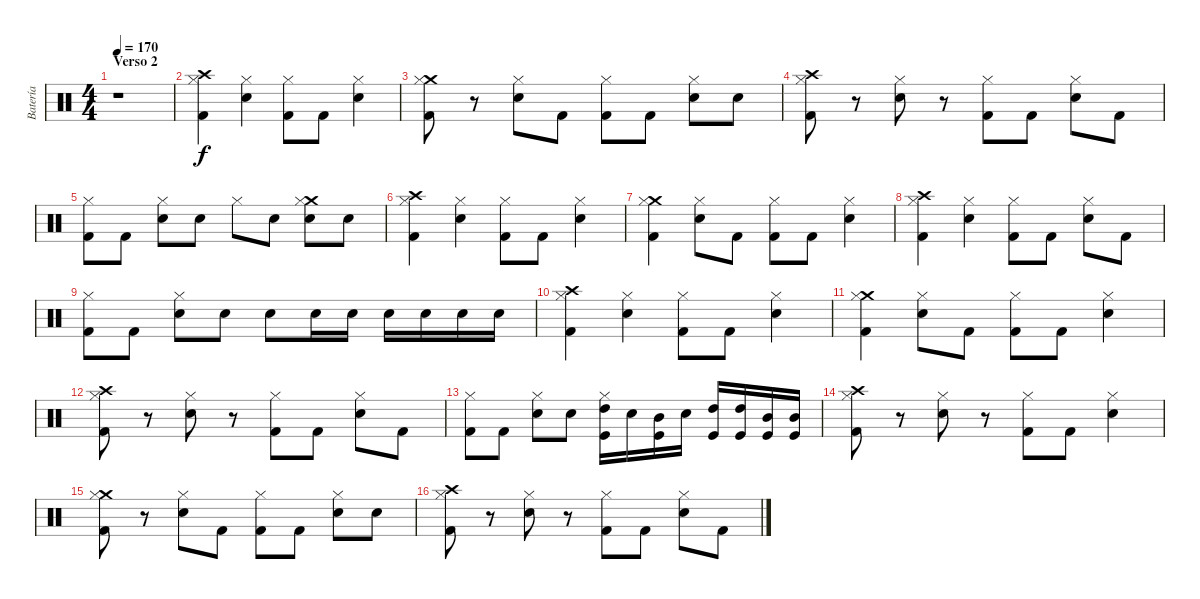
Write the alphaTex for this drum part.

\track ("Batería" "Batería") {instrument percussion}
\staff {score}
\articulation defaults
\ts (4 4)
\section ("" "Verso 2")
\tempo 170
\clef neutral
\ks c
r.1{dy f} |
("Crash high (hit)" "Kick (hit) 2" "Hi-Hat (closed)").4 ("Snare (hit) 2" "Hi-Hat (closed)").4 ("Kick (hit) 2" "Hi-Hat (closed)").8 "Kick (hit) 2".8 ("Snare (hit) 2" "Hi-Hat (closed)").4 |
("Crash medium (hit)" "Kick (hit) 2" "Hi-Hat (closed)").8 r.8 ("Snare (hit) 2" "Hi-Hat (closed)").8 "Kick (hit) 2".8 ("Kick (hit) 2" "Hi-Hat (closed)").8 "Kick (hit) 2".8 ("Snare (hit) 2" "Hi-Hat (closed)").8 "Snare (hit)".8 |
("Crash high (hit)" "Hi-Hat (closed)" "Kick (hit) 2").8 r.8 ("Hi-Hat (closed)" "Snare (hit) 2").8 r.8 ("Hi-Hat (closed)" "Kick (hit) 2").8 "Kick (hit) 2".8 ("Hi-Hat (closed)" "Snare (hit) 2").8 "Kick (hit) 2".8 |
\section ("" "")
("Hi-Hat (closed)" "Kick (hit) 2").8 "Kick (hit) 2".8 ("Hi-Hat (closed)" "Snare (hit) 2").8 "Snare (hit)".8 "Hi-Hat (closed)".8 "Snare (hit)".8 ("Crash medium (hit)" "Hi-Hat (closed)" "Snare (hit) 2").8 "Snare (hit)".8 |
("Crash high (hit)" "Kick (hit) 2" "Hi-Hat (closed)").4 ("Snare (hit) 2" "Hi-Hat (closed)").4 ("Kick (hit) 2" "Hi-Hat (closed)").8 "Kick (hit) 2".8 ("Snare (hit) 2" "Hi-Hat (closed)").4 |
("Crash medium (hit)" "Kick (hit) 2" "Hi-Hat (closed)").4 ("Snare (hit) 2" "Hi-Hat (closed)").8 "Kick (hit) 2".8 ("Kick (hit) 2" "Hi-Hat (closed)").8 "Kick (hit) 2".8 ("Snare (hit) 2" "Hi-Hat (closed)").4 |
("Crash high (hit)" "Hi-Hat (closed)" "Kick (hit) 2").4 ("Hi-Hat (closed)" "Snare (hit) 2").4 ("Hi-Hat (closed)" "Kick (hit) 2").8 "Kick (hit) 2".8 ("Hi-Hat (closed)" "Snare (hit) 2").8 "Kick (hit) 2".8 |
("Hi-Hat (closed)" "Kick (hit) 2").8 "Kick (hit) 2".8 ("Hi-Hat (closed)" "Snare (hit) 2").8 "Snare (hit)".8 "Snare (hit) 2".8 "Snare (hit) 2".16 "Snare (hit) 2".16 "Snare (hit) 2".16 "Snare (hit) 2".16 "Snare (hit) 2".16 "Snare (hit) 2".16 |
("Crash high (hit)" "Kick (hit) 2" "Hi-Hat (closed)").4 ("Snare (hit) 2" "Hi-Hat (closed)").4 ("Kick (hit) 2" "Hi-Hat (closed)").8 "Kick (hit) 2".8 ("Snare (hit) 2" "Hi-Hat (closed)").4 |
("Crash medium (hit)" "Kick (hit) 2" "Hi-Hat (closed)").4 ("Snare (hit) 2" "Hi-Hat (closed)").8 "Kick (hit) 2".8 ("Kick (hit) 2" "Hi-Hat (closed)").8 "Kick (hit) 2".8 ("Snare (hit) 2" "Hi-Hat (closed)").4 |
("Crash high (hit)" "Hi-Hat (closed)" "Kick (hit) 2").8 r.8 ("Hi-Hat (closed)" "Snare (hit) 2").8 r.8 ("Hi-Hat (closed)" "Kick (hit) 2").8 "Kick (hit) 2".8 ("Hi-Hat (closed)" "Snare (hit) 2").8 "Kick (hit) 2".8 |
("Hi-Hat (closed)" "Kick (hit) 2").8 "Kick (hit) 2".8 ("Hi-Hat (closed)" "Snare (hit) 2").8 "Snare (hit)".8 ("High Tom (hit)" "Hi-Hat (closed)" "Kick (hit)").16 "Snare (hit)".16 ("Mid Tom (hit)" "Kick (hit)").16 "Snare (hit)".16 ("High Tom (hit)" "Kick (hit)").16 ("High Tom (hit)" "Kick (hit)").16 ("Mid Tom (hit)" "Kick (hit)").16 ("Mid Tom (hit)" "Kick (hit)").16 |
("Crash high (hit)" "Kick (hit) 2" "Hi-Hat (closed)").8 r.8 ("Snare (hit) 2" "Hi-Hat (closed)").8 r.8 ("Kick (hit) 2" "Hi-Hat (closed)").8 "Kick (hit) 2".8 ("Snare (hit) 2" "Hi-Hat (closed)").4 |
("Crash medium (hit)" "Kick (hit) 2" "Hi-Hat (closed)").8 r.8 ("Snare (hit) 2" "Hi-Hat (closed)").8 "Kick (hit) 2".8 ("Kick (hit) 2" "Hi-Hat (closed)").8 "Kick (hit) 2".8 ("Snare (hit) 2" "Hi-Hat (closed)").8 "Snare (hit)".8 |
("Crash high (hit)" "Hi-Hat (closed)" "Kick (hit) 2").8 r.8 ("Hi-Hat (closed)" "Snare (hit) 2").8 r.8 ("Hi-Hat (closed)" "Kick (hit) 2").8 "Kick (hit) 2".8 ("Hi-Hat (closed)" "Snare (hit) 2").8 "Kick (hit) 2".8
